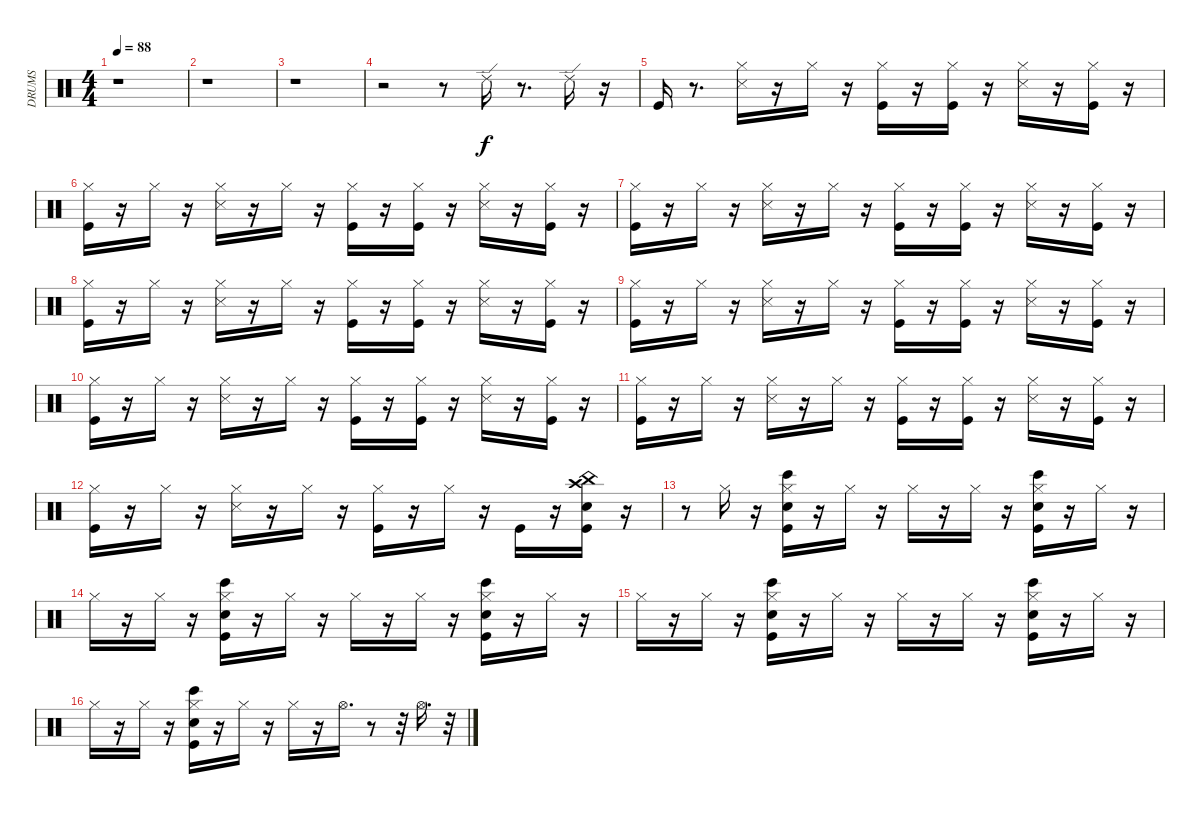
\track ("DRUMS" "DRUMS") {instrument percussion}
\staff {score}
\articulation defaults
\ts (4 4)
\tempo 88
\clef neutral
\ks c
r.1{dy f} |
r.1 |
r.1 |
r.2 r.8 "Ride (edge) 2".16 r.8{d} "Ride (edge) 2".16 r.16 |
"Kick (hit)".16 r.8{d} ("Snare (side stick) 3" "Hi-Hat (closed)").16 r.16 "Hi-Hat (closed)".16 r.16 ("Kick (hit)" "Hi-Hat (closed)").16 r.16 ("Kick (hit)" "Hi-Hat (closed)").16 r.16 ("Snare (side stick) 3" "Hi-Hat (closed)").16 r.16 ("Kick (hit)" "Hi-Hat (closed)").16 r.16 |
("Kick (hit)" "Hi-Hat (closed)").16 r.16 "Hi-Hat (closed)".16 r.16 ("Snare (side stick) 3" "Hi-Hat (closed)").16 r.16 "Hi-Hat (closed)".16 r.16 ("Kick (hit)" "Hi-Hat (closed)").16 r.16 ("Kick (hit)" "Hi-Hat (closed)").16 r.16 ("Snare (side stick) 3" "Hi-Hat (closed)").16 r.16 ("Kick (hit)" "Hi-Hat (closed)").16 r.16 |
("Kick (hit)" "Hi-Hat (closed)").16 r.16 "Hi-Hat (closed)".16 r.16 ("Snare (side stick) 3" "Hi-Hat (closed)").16 r.16 "Hi-Hat (closed)".16 r.16 ("Kick (hit)" "Hi-Hat (closed)").16 r.16 ("Kick (hit)" "Hi-Hat (closed)").16 r.16 ("Snare (side stick) 3" "Hi-Hat (closed)").16 r.16 ("Kick (hit)" "Hi-Hat (closed)").16 r.16 |
("Kick (hit)" "Hi-Hat (closed)").16 r.16 "Hi-Hat (closed)".16 r.16 ("Snare (side stick) 3" "Hi-Hat (closed)").16 r.16 "Hi-Hat (closed)".16 r.16 ("Kick (hit)" "Hi-Hat (closed)").16 r.16 ("Kick (hit)" "Hi-Hat (closed)").16 r.16 ("Snare (side stick) 3" "Hi-Hat (closed)").16 r.16 ("Kick (hit)" "Hi-Hat (closed)").16 r.16 |
("Kick (hit)" "Hi-Hat (closed)").16 r.16 "Hi-Hat (closed)".16 r.16 ("Snare (side stick) 3" "Hi-Hat (closed)").16 r.16 "Hi-Hat (closed)".16 r.16 ("Kick (hit)" "Hi-Hat (closed)").16 r.16 ("Kick (hit)" "Hi-Hat (closed)").16 r.16 ("Snare (side stick) 3" "Hi-Hat (closed)").16 r.16 ("Kick (hit)" "Hi-Hat (closed)").16 r.16 |
("Kick (hit)" "Hi-Hat (closed)").16 r.16 "Hi-Hat (closed)".16 r.16 ("Snare (side stick) 3" "Hi-Hat (closed)").16 r.16 "Hi-Hat (closed)".16 r.16 ("Kick (hit)" "Hi-Hat (closed)").16 r.16 ("Kick (hit)" "Hi-Hat (closed)").16 r.16 ("Snare (side stick) 3" "Hi-Hat (closed)").16 r.16 ("Kick (hit)" "Hi-Hat (closed)").16 r.16 |
("Kick (hit)" "Hi-Hat (closed)").16 r.16 "Hi-Hat (closed)".16 r.16 ("Snare (side stick) 3" "Hi-Hat (closed)").16 r.16 "Hi-Hat (closed)".16 r.16 ("Kick (hit)" "Hi-Hat (closed)").16 r.16 ("Kick (hit)" "Hi-Hat (closed)").16 r.16 ("Snare (side stick) 3" "Hi-Hat (closed)").16 r.16 ("Kick (hit)" "Hi-Hat (closed)").16 r.16 |
("Kick (hit)" "Hi-Hat (closed)").16 r.16 "Hi-Hat (closed)".16 r.16 ("Snare (side stick) 3" "Hi-Hat (closed)").16 r.16 "Hi-Hat (closed)".16 r.16 ("Kick (hit)" "Hi-Hat (closed)").16 r.16 "Hi-Hat (closed)".16 r.16 "Kick (hit)".16 r.16 ("Kick (hit)" "China (hit)" "Electric Snare (hit)" "Crash high (hit)").16 r.16 |
r.8 "Hi-Hat (closed)".16 r.16 ("Bongo High (hit)" "Kick (hit)" "Electric Snare (hit)" "Hi-Hat (closed)").16 r.16 "Hi-Hat (closed)".16 r.16 "Hi-Hat (closed)".16 r.16 "Hi-Hat (closed)".16 r.16 ("Bongo High (hit)" "Kick (hit)" "Electric Snare (hit)" "Hi-Hat (closed)").16 r.16 "Hi-Hat (closed)".16 r.16 |
"Hi-Hat (closed)".16 r.16 "Hi-Hat (closed)".16 r.16 ("Bongo High (hit)" "Kick (hit)" "Electric Snare (hit)" "Hi-Hat (closed)").16 r.16 "Hi-Hat (closed)".16 r.16 "Hi-Hat (closed)".16 r.16 "Hi-Hat (closed)".16 r.16 ("Bongo High (hit)" "Kick (hit)" "Electric Snare (hit)" "Hi-Hat (closed)").16 r.16 "Hi-Hat (closed)".16 r.16 |
"Hi-Hat (closed)".16 r.16 "Hi-Hat (closed)".16 r.16 ("Bongo High (hit)" "Kick (hit)" "Electric Snare (hit)" "Hi-Hat (closed)").16 r.16 "Hi-Hat (closed)".16 r.16 "Hi-Hat (closed)".16 r.16 "Hi-Hat (closed)".16 r.16 ("Bongo High (hit)" "Kick (hit)" "Electric Snare (hit)" "Hi-Hat (closed)").16 r.16 "Hi-Hat (closed)".16 r.16 |
"Hi-Hat (closed)".16 r.16 "Hi-Hat (closed)".16 r.16 ("Bongo High (hit)" "Kick (hit)" "Electric Snare (hit)" "Hi-Hat (closed)").16 r.16 "Hi-Hat (closed)".16 r.16 "Hi-Hat (closed)".16 r.16 "Hi-Hat (open)".16{d} r.8 r.32 "Hi-Hat (open)".16{d} r.32
